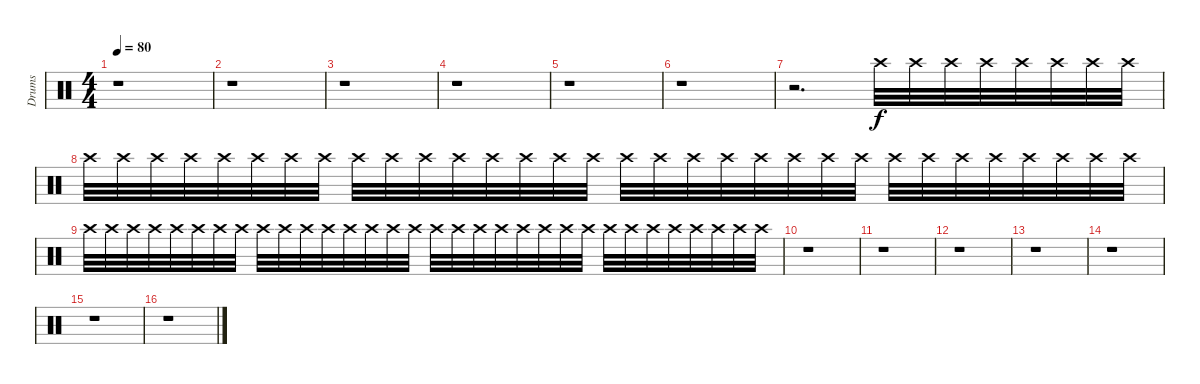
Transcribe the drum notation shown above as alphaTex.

\track ("Drums" "Drums") {instrument percussion}
\staff {score}
\articulation defaults
\ts (4 4)
\tempo 80
\clef neutral
\ks c
r.1{dy f} |
r.1 |
r.1 |
r.1 |
r.1 |
r.1 |
r.2{d} "Crash high (hit)".32 "Crash high (hit)".32 "Crash high (hit)".32 "Crash high (hit)".32 "Crash high (hit)".32 "Crash high (hit)".32 "Crash high (hit)".32 "Crash high (hit)".32 |
"Crash high (hit)".32 "Crash high (hit)".32 "Crash high (hit)".32 "Crash high (hit)".32 "Crash high (hit)".32 "Crash high (hit)".32 "Crash high (hit)".32 "Crash high (hit)".32 "Crash high (hit)".32 "Crash high (hit)".32 "Crash high (hit)".32 "Crash high (hit)".32 "Crash high (hit)".32 "Crash high (hit)".32 "Crash high (hit)".32 "Crash high (hit)".32 "Crash high (hit)".32 "Crash high (hit)".32 "Crash high (hit)".32 "Crash high (hit)".32 "Crash high (hit)".32 "Crash high (hit)".32 "Crash high (hit)".32 "Crash high (hit)".32 "Crash high (hit)".32 "Crash high (hit)".32 "Crash high (hit)".32 "Crash high (hit)".32 "Crash high (hit)".32 "Crash high (hit)".32 "Crash high (hit)".32 "Crash high (hit)".32 |
"Crash high (hit)".32 "Crash high (hit)".32 "Crash high (hit)".32 "Crash high (hit)".32 "Crash high (hit)".32 "Crash high (hit)".32 "Crash high (hit)".32 "Crash high (hit)".32 "Crash high (hit)".32 "Crash high (hit)".32 "Crash high (hit)".32 "Crash high (hit)".32 "Crash high (hit)".32 "Crash high (hit)".32 "Crash high (hit)".32 "Crash high (hit)".32 "Crash high (hit)".32 "Crash high (hit)".32 "Crash high (hit)".32 "Crash high (hit)".32 "Crash high (hit)".32 "Crash high (hit)".32 "Crash high (hit)".32 "Crash high (hit)".32 "Crash high (hit)".32 "Crash high (hit)".32 "Crash high (hit)".32 "Crash high (hit)".32 "Crash high (hit)".32 "Crash high (hit)".32 "Crash high (hit)".32 "Crash high (hit)".32 |
r.1 |
r.1 |
r.1 |
r.1 |
r.1 |
r.1 |
r.1
